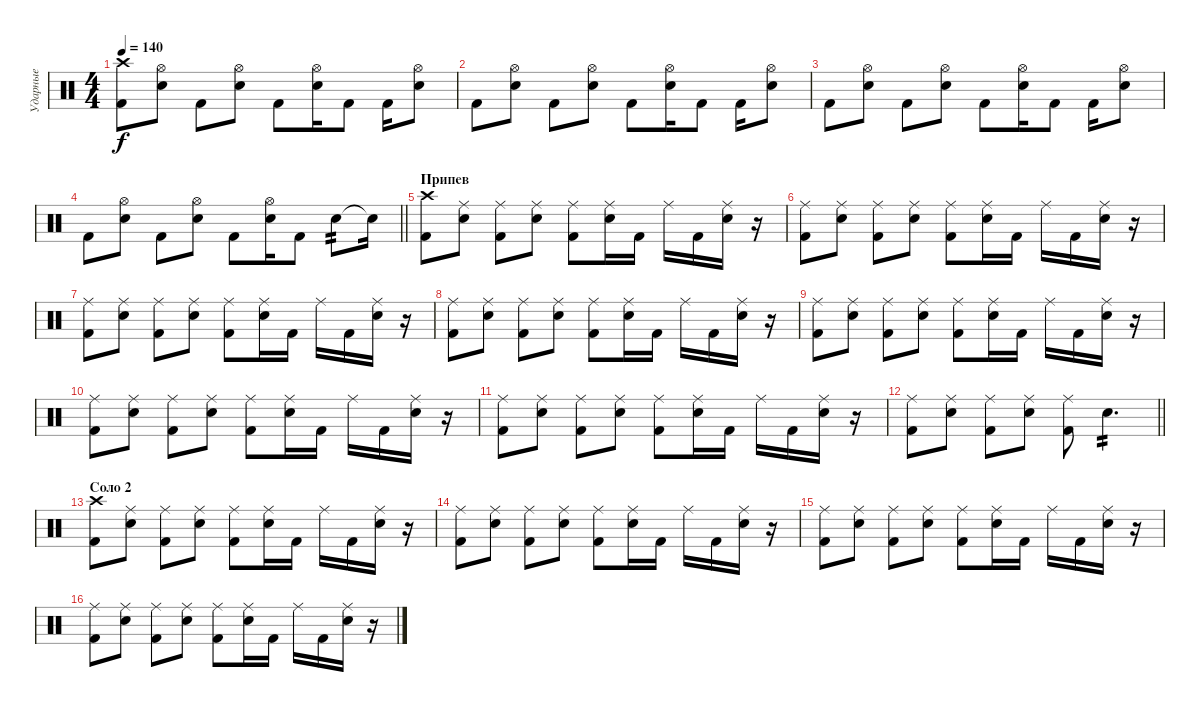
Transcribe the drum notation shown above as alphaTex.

\track ("Ударные" "Ударные") {instrument percussion}
\staff {score}
\articulation defaults
\ts (4 4)
\tempo 140
\clef neutral
\ks c
("Crash high (hit)" "Kick (hit) 2").8{dy f} ("Hi-Hat (open)" "Electric Snare (hit)").8 "Kick (hit) 2".8 ("Hi-Hat (open)" "Electric Snare (hit)").8 "Kick (hit) 2".8 ("Hi-Hat (open)" "Electric Snare (hit)").16 "Kick (hit) 2".8 "Kick (hit) 2".16 ("Hi-Hat (open)" "Electric Snare (hit)").8 |
"Kick (hit) 2".8 ("Hi-Hat (open)" "Electric Snare (hit)").8 "Kick (hit) 2".8 ("Hi-Hat (open)" "Electric Snare (hit)").8 "Kick (hit) 2".8 ("Hi-Hat (open)" "Electric Snare (hit)").16 "Kick (hit) 2".8 "Kick (hit) 2".16 ("Hi-Hat (open)" "Electric Snare (hit)").8 |
"Kick (hit) 2".8 ("Hi-Hat (open)" "Electric Snare (hit)").8 "Kick (hit) 2".8 ("Hi-Hat (open)" "Electric Snare (hit)").8 "Kick (hit) 2".8 ("Hi-Hat (open)" "Electric Snare (hit)").16 "Kick (hit) 2".8 "Kick (hit) 2".16 ("Hi-Hat (open)" "Electric Snare (hit)").8 |
\barLineRight lightlight "Kick (hit) 2".8
("Hi-Hat (open)" "Electric Snare (hit)").8 "Kick (hit) 2".8 ("Hi-Hat (open)" "Electric Snare (hit)").8 "Kick (hit) 2".8 ("Hi-Hat (open)" "Electric Snare (hit)").16 "Kick (hit) 2".8 "Electric Snare (hit)".8{tp 2} "Snare (hit)"{t}.16 |
\section ("" "Припев")
("Crash high (hit)" "Kick (hit) 2").8 ("Ride (middle)" "Electric Snare (hit)").8 ("Ride (middle)" "Kick (hit) 2").8 ("Ride (middle)" "Electric Snare (hit)").8 ("Ride (middle)" "Kick (hit) 2").8 ("Ride (middle)" "Electric Snare (hit)").16 "Kick (hit) 2".16 "Ride (middle)".16 "Kick (hit) 2".16 ("Ride (middle)" "Electric Snare (hit)").16 r.16 |
("Ride (middle)" "Kick (hit) 2").8 ("Ride (middle)" "Electric Snare (hit)").8 ("Ride (middle)" "Kick (hit) 2").8 ("Ride (middle)" "Electric Snare (hit)").8 ("Ride (middle)" "Kick (hit) 2").8 ("Ride (middle)" "Electric Snare (hit)").16 "Kick (hit) 2".16 "Ride (middle)".16 "Kick (hit) 2".16 ("Ride (middle)" "Electric Snare (hit)").16 r.16 |
("Ride (middle)" "Kick (hit) 2").8 ("Ride (middle)" "Electric Snare (hit)").8 ("Ride (middle)" "Kick (hit) 2").8 ("Ride (middle)" "Electric Snare (hit)").8 ("Ride (middle)" "Kick (hit) 2").8 ("Ride (middle)" "Electric Snare (hit)").16 "Kick (hit) 2".16 "Ride (middle)".16 "Kick (hit) 2".16 ("Ride (middle)" "Electric Snare (hit)").16 r.16 |
("Ride (middle)" "Kick (hit) 2").8 ("Ride (middle)" "Electric Snare (hit)").8 ("Ride (middle)" "Kick (hit) 2").8 ("Ride (middle)" "Electric Snare (hit)").8 ("Ride (middle)" "Kick (hit) 2").8 ("Ride (middle)" "Electric Snare (hit)").16 "Kick (hit) 2".16 "Ride (middle)".16 "Kick (hit) 2".16 ("Ride (middle)" "Electric Snare (hit)").16 r.16 |
("Ride (middle)" "Kick (hit) 2").8 ("Ride (middle)" "Electric Snare (hit)").8 ("Ride (middle)" "Kick (hit) 2").8 ("Ride (middle)" "Electric Snare (hit)").8 ("Ride (middle)" "Kick (hit) 2").8 ("Ride (middle)" "Electric Snare (hit)").16 "Kick (hit) 2".16 "Ride (middle)".16 "Kick (hit) 2".16 ("Ride (middle)" "Electric Snare (hit)").16 r.16 |
("Ride (middle)" "Kick (hit) 2").8 ("Ride (middle)" "Electric Snare (hit)").8 ("Ride (middle)" "Kick (hit) 2").8 ("Ride (middle)" "Electric Snare (hit)").8 ("Ride (middle)" "Kick (hit) 2").8 ("Ride (middle)" "Electric Snare (hit)").16 "Kick (hit) 2".16 "Ride (middle)".16 "Kick (hit) 2".16 ("Ride (middle)" "Electric Snare (hit)").16 r.16 |
("Ride (middle)" "Kick (hit) 2").8 ("Ride (middle)" "Electric Snare (hit)").8 ("Ride (middle)" "Kick (hit) 2").8 ("Ride (middle)" "Electric Snare (hit)").8 ("Ride (middle)" "Kick (hit) 2").8 ("Ride (middle)" "Electric Snare (hit)").16 "Kick (hit) 2".16 "Ride (middle)".16 "Kick (hit) 2".16 ("Ride (middle)" "Electric Snare (hit)").16 r.16 |
\barLineRight lightlight
("Ride (middle)" "Kick (hit) 2").8 ("Ride (middle)" "Electric Snare (hit)").8 ("Ride (middle)" "Kick (hit) 2").8 ("Ride (middle)" "Electric Snare (hit)").8 ("Ride (middle)" "Kick (hit) 2").8 "Electric Snare (hit)".4{d tp 2} |
\section ("" "Соло 2")
("Crash high (hit)" "Kick (hit) 2").8 ("Ride (middle)" "Electric Snare (hit)").8 ("Ride (middle)" "Kick (hit) 2").8 ("Ride (middle)" "Electric Snare (hit)").8 ("Ride (middle)" "Kick (hit) 2").8 ("Ride (middle)" "Electric Snare (hit)").16 "Kick (hit) 2".16 "Ride (middle)".16 "Kick (hit) 2".16 ("Ride (middle)" "Electric Snare (hit)").16 r.16 |
("Ride (middle)" "Kick (hit) 2").8 ("Ride (middle)" "Electric Snare (hit)").8 ("Ride (middle)" "Kick (hit) 2").8 ("Ride (middle)" "Electric Snare (hit)").8 ("Ride (middle)" "Kick (hit) 2").8 ("Ride (middle)" "Electric Snare (hit)").16 "Kick (hit) 2".16 "Ride (middle)".16 "Kick (hit) 2".16 ("Ride (middle)" "Electric Snare (hit)").16 r.16 |
("Ride (middle)" "Kick (hit) 2").8 ("Ride (middle)" "Electric Snare (hit)").8 ("Ride (middle)" "Kick (hit) 2").8 ("Ride (middle)" "Electric Snare (hit)").8 ("Ride (middle)" "Kick (hit) 2").8 ("Ride (middle)" "Electric Snare (hit)").16 "Kick (hit) 2".16 "Ride (middle)".16 "Kick (hit) 2".16 ("Ride (middle)" "Electric Snare (hit)").16 r.16 |
("Ride (middle)" "Kick (hit) 2").8 ("Ride (middle)" "Electric Snare (hit)").8 ("Ride (middle)" "Kick (hit) 2").8 ("Ride (middle)" "Electric Snare (hit)").8 ("Ride (middle)" "Kick (hit) 2").8 ("Ride (middle)" "Electric Snare (hit)").16 "Kick (hit) 2".16 "Ride (middle)".16 "Kick (hit) 2".16 ("Ride (middle)" "Electric Snare (hit)").16 r.16
